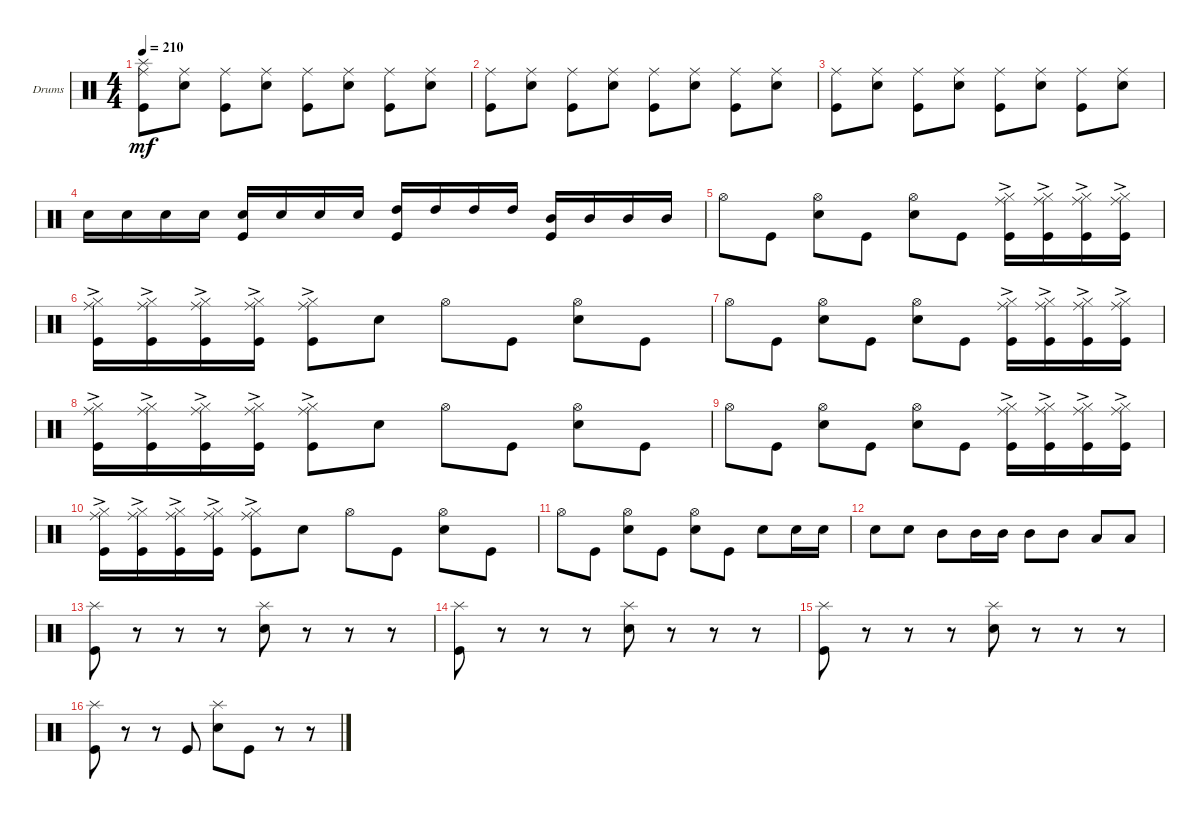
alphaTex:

\bracketExtendMode groupsimilarinstruments
\firstSystemTrackNameOrientation horizontal
\otherSystemsTrackNameOrientation horizontal
\track ("Drumkit" "Drums") {instrument percussion}
\staff {score}
\articulation defaults
\ts (4 4)
\tempo 210
\clef neutral
\ks c
("Kick (hit)" "Ride (middle)" "Splash (hit)").8{dy mf} ("Snare (hit) 2" "Ride (middle)").8 ("Kick (hit)" "Ride (middle)").8 ("Snare (hit) 2" "Ride (middle)").8 ("Kick (hit)" "Ride (middle)").8 ("Snare (hit) 2" "Ride (middle)").8 ("Kick (hit)" "Ride (middle)").8 ("Snare (hit) 2" "Ride (middle)").8 |
("Kick (hit)" "Ride (middle)").8 ("Snare (hit) 2" "Ride (middle)").8 ("Kick (hit)" "Ride (middle)").8 ("Snare (hit) 2" "Ride (middle)").8 ("Kick (hit)" "Ride (middle)").8 ("Snare (hit) 2" "Ride (middle)").8 ("Kick (hit)" "Ride (middle)").8 ("Snare (hit) 2" "Ride (middle)").8 |
("Kick (hit)" "Ride (middle)").8 ("Snare (hit) 2" "Ride (middle)").8 ("Kick (hit)" "Ride (middle)").8 ("Snare (hit) 2" "Ride (middle)").8 ("Kick (hit)" "Ride (middle)").8 ("Snare (hit) 2" "Ride (middle)").8 ("Kick (hit)" "Ride (middle)").8 ("Snare (hit) 2" "Ride (middle)").8 |
"Snare (hit) 2".16 "Snare (hit) 2".16 "Snare (hit) 2".16 "Snare (hit) 2".16 ("Kick (hit)" "Snare (hit) 2").16 "Snare (hit) 2".16 "Snare (hit) 2".16 "Snare (hit) 2".16 ("Kick (hit)" "High Tom (hit)").16 "High Tom (hit)".16 "High Tom (hit)".16 "High Tom (hit)".16 ("Kick (hit)" "Mid Tom (hit)").16 "Mid Tom (hit)".16 "Mid Tom (hit)".16 "Mid Tom (hit)".16 |
"Hi-Hat (open)".8 "Kick (hit)".8 ("Snare (hit) 2" "Hi-Hat (open)").8 "Kick (hit)".8 ("Snare (hit) 2" "Hi-Hat (open)").8 "Kick (hit)".8 ("Kick (hit)" "Hi-Hat (closed)"{ac} "Ride (middle)").16 ("Kick (hit)" "Hi-Hat (closed)"{ac} "Ride (middle)").16 ("Kick (hit)" "Hi-Hat (closed)"{ac} "Ride (middle)").16 ("Kick (hit)" "Hi-Hat (closed)"{ac} "Ride (middle)").16 |
("Kick (hit)" "Hi-Hat (closed)"{ac} "Ride (middle)").16 ("Kick (hit)" "Hi-Hat (closed)"{ac} "Ride (middle)").16 ("Kick (hit)" "Hi-Hat (closed)"{ac} "Ride (middle)").16 ("Kick (hit)" "Hi-Hat (closed)"{ac} "Ride (middle)").16 ("Kick (hit)" "Hi-Hat (closed)"{ac} "Ride (middle)").8 "Snare (hit) 2".8 "Hi-Hat (open)".8 "Kick (hit)".8 ("Snare (hit) 2" "Hi-Hat (open)").8 "Kick (hit)".8 |
"Hi-Hat (open)".8 "Kick (hit)".8 ("Snare (hit) 2" "Hi-Hat (open)").8 "Kick (hit)".8 ("Snare (hit) 2" "Hi-Hat (open)").8 "Kick (hit)".8 ("Kick (hit)" "Hi-Hat (closed)"{ac} "Ride (middle)").16 ("Kick (hit)" "Hi-Hat (closed)"{ac} "Ride (middle)").16 ("Kick (hit)" "Hi-Hat (closed)"{ac} "Ride (middle)").16 ("Kick (hit)" "Hi-Hat (closed)"{ac} "Ride (middle)").16 |
("Kick (hit)" "Hi-Hat (closed)"{ac} "Ride (middle)").16 ("Kick (hit)" "Hi-Hat (closed)"{ac} "Ride (middle)").16 ("Kick (hit)" "Hi-Hat (closed)"{ac} "Ride (middle)").16 ("Kick (hit)" "Hi-Hat (closed)"{ac} "Ride (middle)").16 ("Kick (hit)" "Hi-Hat (closed)"{ac} "Ride (middle)").8 "Snare (hit) 2".8 "Hi-Hat (open)".8 "Kick (hit)".8 ("Snare (hit) 2" "Hi-Hat (open)").8 "Kick (hit)".8 |
"Hi-Hat (open)".8 "Kick (hit)".8 ("Snare (hit) 2" "Hi-Hat (open)").8 "Kick (hit)".8 ("Snare (hit) 2" "Hi-Hat (open)").8 "Kick (hit)".8 ("Kick (hit)" "Hi-Hat (closed)"{ac} "Ride (middle)").16 ("Kick (hit)" "Hi-Hat (closed)"{ac} "Ride (middle)").16 ("Kick (hit)" "Hi-Hat (closed)"{ac} "Ride (middle)").16 ("Kick (hit)" "Hi-Hat (closed)"{ac} "Ride (middle)").16 |
("Kick (hit)" "Hi-Hat (closed)"{ac} "Ride (middle)").16 ("Kick (hit)" "Hi-Hat (closed)"{ac} "Ride (middle)").16 ("Kick (hit)" "Hi-Hat (closed)"{ac} "Ride (middle)").16 ("Kick (hit)" "Hi-Hat (closed)"{ac} "Ride (middle)").16 ("Kick (hit)" "Hi-Hat (closed)"{ac} "Ride (middle)").8 "Snare (hit) 2".8 "Hi-Hat (open)".8 "Kick (hit)".8 ("Snare (hit) 2" "Hi-Hat (open)").8 "Kick (hit)".8 |
"Hi-Hat (open)".8 "Kick (hit)".8 ("Snare (hit) 2" "Hi-Hat (open)").8 "Kick (hit)".8 ("Snare (hit) 2" "Hi-Hat (open)").8 "Kick (hit)".8 "Snare (hit) 2".8 "Snare (hit) 2".16 "Snare (hit) 2".16 |
"Snare (hit) 2".8 "Snare (hit) 2".8 "Mid Tom (hit)".8 "Mid Tom (hit)".16 "Mid Tom (hit)".16 "Mid Tom (hit)".8 "Mid Tom (hit)".8 "Low Tom (hit)".8 "Low Tom (hit)".8 |
("Kick (hit)" "Splash (hit)").8 r.8 r.8 r.8 ("Snare (hit) 2" "Splash (hit)").8 r.8 r.8 r.8 |
("Kick (hit)" "Splash (hit)").8 r.8 r.8 r.8 ("Snare (hit) 2" "Splash (hit)").8 r.8 r.8 r.8 |
("Kick (hit)" "Splash (hit)").8 r.8 r.8 r.8 ("Snare (hit) 2" "Splash (hit)").8 r.8 r.8 r.8 |
("Kick (hit)" "Splash (hit)").8 r.8 r.8 "Kick (hit)".8 ("Snare (hit) 2" "Splash (hit)").8 "Kick (hit)".8 r.8 r.8
